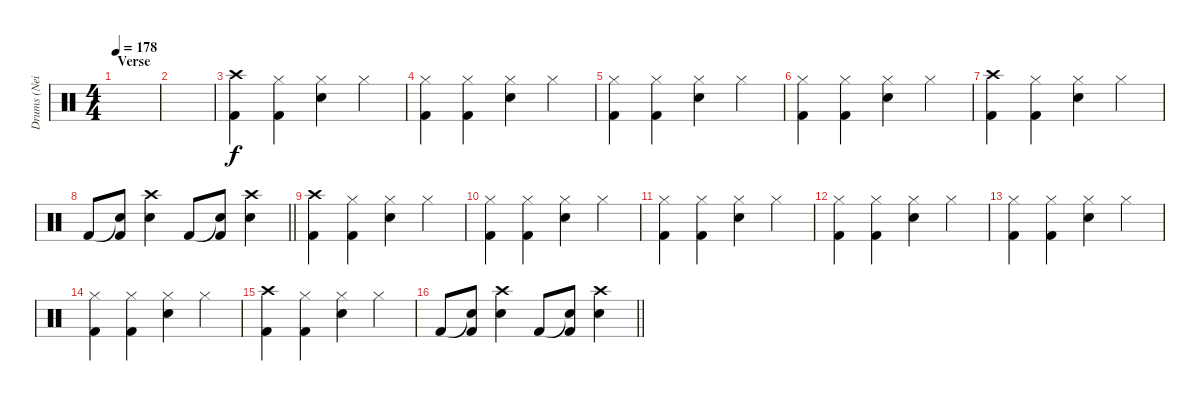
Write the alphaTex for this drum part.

\track ("Drums (Neil Sanderson)" "Drums (Nei") {instrument percussion}
\staff {score}
\articulation defaults
\ts (4 4)
\section ("" "Verse")
\tempo 178
\clef neutral
\ks c
|
|
("Crash high (hit)" "Kick (hit) 2").4 ("Hi-Hat (closed)" "Kick (hit) 2").4 ("Hi-Hat (closed)" "Snare (hit) 2").4 "Hi-Hat (closed)".4 |
("Hi-Hat (closed)" "Kick (hit) 2").4 ("Hi-Hat (closed)" "Kick (hit) 2").4 ("Hi-Hat (closed)" "Snare (hit) 2").4 "Hi-Hat (closed)".4 |
("Hi-Hat (closed)" "Kick (hit) 2").4 ("Hi-Hat (closed)" "Kick (hit) 2").4 ("Hi-Hat (closed)" "Snare (hit) 2").4 "Hi-Hat (closed)".4 |
("Hi-Hat (closed)" "Kick (hit) 2").4 ("Hi-Hat (closed)" "Kick (hit) 2").4 ("Hi-Hat (closed)" "Snare (hit) 2").4 "Hi-Hat (closed)".4 |
("Crash high (hit)" "Kick (hit) 2").4 ("Hi-Hat (closed)" "Kick (hit) 2").4 ("Hi-Hat (closed)" "Snare (hit) 2").4 "Hi-Hat (closed)".4 |
\barLineRight lightlight "Kick (hit) 2".8
("Snare (hit)"{t} "Kick (hit) 2").8 ("Crash high (hit)" "Snare (hit) 2").4 "Kick (hit) 2".8 ("Snare (hit)"{t} "Kick (hit) 2").8 ("Crash high (hit)" "Snare (hit) 2").4 |
("Crash high (hit)" "Kick (hit) 2").4 ("Hi-Hat (closed)" "Kick (hit) 2").4 ("Hi-Hat (closed)" "Snare (hit) 2").4 "Hi-Hat (closed)".4 |
("Hi-Hat (closed)" "Kick (hit) 2").4 ("Hi-Hat (closed)" "Kick (hit) 2").4 ("Hi-Hat (closed)" "Snare (hit) 2").4 "Hi-Hat (closed)".4 |
("Hi-Hat (closed)" "Kick (hit) 2").4 ("Hi-Hat (closed)" "Kick (hit) 2").4 ("Hi-Hat (closed)" "Snare (hit) 2").4 "Hi-Hat (closed)".4 |
("Hi-Hat (closed)" "Kick (hit) 2").4 ("Hi-Hat (closed)" "Kick (hit) 2").4 ("Hi-Hat (closed)" "Snare (hit) 2").4 "Hi-Hat (closed)".4 |
("Hi-Hat (closed)" "Kick (hit) 2").4 ("Hi-Hat (closed)" "Kick (hit) 2").4 ("Hi-Hat (closed)" "Snare (hit) 2").4 "Hi-Hat (closed)".4 |
("Hi-Hat (closed)" "Kick (hit) 2").4 ("Hi-Hat (closed)" "Kick (hit) 2").4 ("Hi-Hat (closed)" "Snare (hit) 2").4 "Hi-Hat (closed)".4 |
("Crash high (hit)" "Kick (hit) 2").4 ("Hi-Hat (closed)" "Kick (hit) 2").4 ("Hi-Hat (closed)" "Snare (hit) 2").4 "Hi-Hat (closed)".4 |
\barLineRight lightlight "Kick (hit) 2".8
("Snare (hit)"{t} "Kick (hit) 2").8 ("Crash high (hit)" "Snare (hit) 2").4 "Kick (hit) 2".8 ("Snare (hit)"{t} "Kick (hit) 2").8 ("Crash high (hit)" "Snare (hit) 2").4
